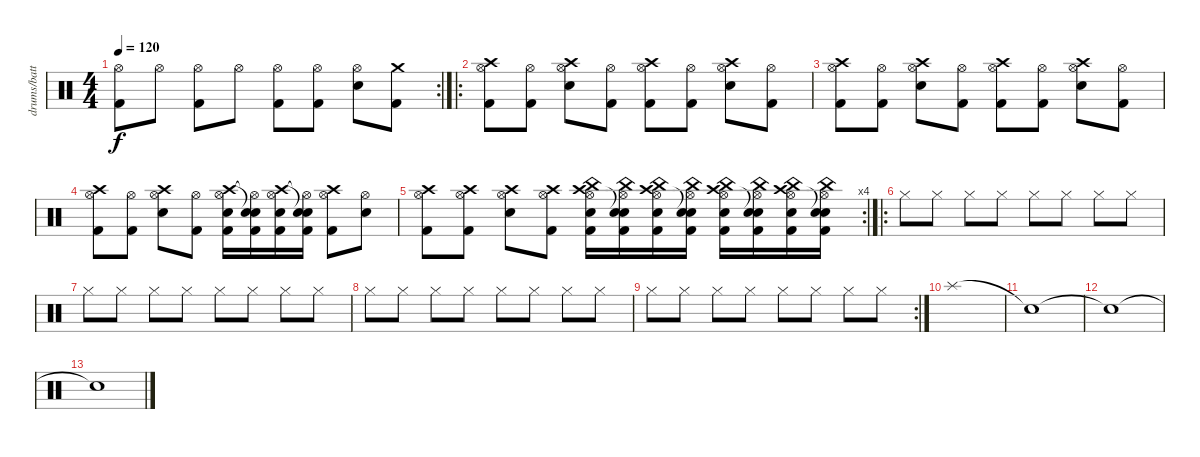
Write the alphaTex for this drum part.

\track ("drums/battery" "drums/batt") {instrument percussion}
\staff {score}
\articulation defaults
\rc 2
\ts (4 4)
\tempo 120
\clef neutral
\ks c
("Hi-Hat (open)" "Kick (hit) 2").8{dy f} "Hi-Hat (open)".8 ("Hi-Hat (open)" "Kick (hit) 2").8 "Hi-Hat (open)".8 ("Hi-Hat (open)" "Kick (hit) 2").8 ("Hi-Hat (open)" "Kick (hit) 2").8 ("Hi-Hat (open)" "Electric Snare (hit)").8 ("Crash medium (hit)" "Kick (hit) 2").8 |
\ro
("Crash high (hit)" "Hi-Hat (open)" "Kick (hit) 2").8 ("Hi-Hat (open)" "Kick (hit) 2").8 ("Crash high (hit)" "Hi-Hat (open)" "Electric Snare (hit)").8 ("Hi-Hat (open)" "Kick (hit) 2").8 ("Crash high (hit)" "Hi-Hat (open)" "Kick (hit) 2").8 ("Hi-Hat (open)" "Kick (hit) 2").8 ("Crash high (hit)" "Hi-Hat (open)" "Electric Snare (hit)").8 ("Hi-Hat (open)" "Kick (hit) 2").8 |
("Crash high (hit)" "Hi-Hat (open)" "Kick (hit) 2").8 ("Hi-Hat (open)" "Kick (hit) 2").8 ("Crash high (hit)" "Hi-Hat (open)" "Electric Snare (hit)").8 ("Hi-Hat (open)" "Kick (hit) 2").8 ("Crash high (hit)" "Hi-Hat (open)" "Kick (hit) 2").8 ("Hi-Hat (open)" "Kick (hit) 2").8 ("Crash high (hit)" "Hi-Hat (open)" "Electric Snare (hit)").8 ("Hi-Hat (open)" "Kick (hit) 2").8 |
("Crash high (hit)" "Hi-Hat (open)" "Kick (hit) 2").8 ("Hi-Hat (open)" "Kick (hit) 2").8 ("Crash high (hit)" "Hi-Hat (open)" "Electric Snare (hit)").8 ("Hi-Hat (open)" "Kick (hit) 2").8 ("Crash high (hit)" "Electric Snare (hit)" "Hi-Hat (open)" "Kick (hit) 2").16 ("Snare (hit)"{t} "Electric Snare (hit)" "Hi-Hat (open)"{t} "Kick (hit) 2").16 ("Crash high (hit)" "Electric Snare (hit)" "Hi-Hat (open)" "Kick (hit) 2").16 ("Snare (hit)"{t} "Electric Snare (hit)" "Hi-Hat (open)"{t} "Kick (hit) 2").16 ("Crash high (hit)" "Hi-Hat (open)" "Kick (hit) 2").8 ("Hi-Hat (open)" "Electric Snare (hit)").8 |
\rc 4
("Crash high (hit)" "Hi-Hat (open)" "Kick (hit) 2").8 ("Crash high (hit)" "Hi-Hat (open)" "Kick (hit) 2").8 ("Crash high (hit)" "Hi-Hat (open)" "Electric Snare (hit)").8 ("Crash high (hit)" "Hi-Hat (open)" "Kick (hit) 2").8 ("China (hit)" "Crash high (hit)" "Kick (hit) 2" "Hi-Hat (open)" "Electric Snare (hit)").16 ("China (hit)" "Snare (hit)"{t} "Kick (hit) 2" "Hi-Hat (open)" "Electric Snare (hit)").16 ("China (hit)" "Crash high (hit)" "Kick (hit) 2" "Hi-Hat (open)" "Electric Snare (hit)").16 ("China (hit)" "Snare (hit)"{t} "Kick (hit) 2" "Hi-Hat (open)" "Electric Snare (hit)").16 ("China (hit)" "Crash high (hit)" "Kick (hit) 2" "Hi-Hat (open)" "Electric Snare (hit)").16 ("China (hit)" "Snare (hit)"{t} "Kick (hit) 2" "Hi-Hat (open)" "Electric Snare (hit)").16 ("China (hit)" "Crash high (hit)" "Kick (hit) 2" "Hi-Hat (open)" "Electric Snare (hit)").16 ("China (hit)" "Snare (hit)"{t} "Kick (hit) 2" "Hi-Hat (open)" "Electric Snare (hit)").16 |
\ro "Hi-Hat (closed)".8 "Hi-Hat (closed)".8 "Hi-Hat (closed)".8 "Hi-Hat (closed)".8 "Hi-Hat (closed)".8 "Hi-Hat (closed)".8 "Hi-Hat (closed)".8 "Hi-Hat (closed)".8
|
"Hi-Hat (closed)".8 "Hi-Hat (closed)".8 "Hi-Hat (closed)".8 "Hi-Hat (closed)".8 "Hi-Hat (closed)".8 "Hi-Hat (closed)".8 "Hi-Hat (closed)".8 "Hi-Hat (closed)".8 |
"Hi-Hat (closed)".8 "Hi-Hat (closed)".8 "Hi-Hat (closed)".8 "Hi-Hat (closed)".8 "Hi-Hat (closed)".8 "Hi-Hat (closed)".8 "Hi-Hat (closed)".8 "Hi-Hat (closed)".8 |
\rc 2 "Hi-Hat (closed)".8 "Hi-Hat (closed)".8 "Hi-Hat (closed)".8 "Hi-Hat (closed)".8 "Hi-Hat (closed)".8 "Hi-Hat (closed)".8 "Hi-Hat (closed)".8 "Hi-Hat (closed)".8
|
"Splash (hit)".1 |
"Snare (hit)"{t}.1 |
"Snare (hit)"{t}.1 |
"Snare (hit)"{t}.1
